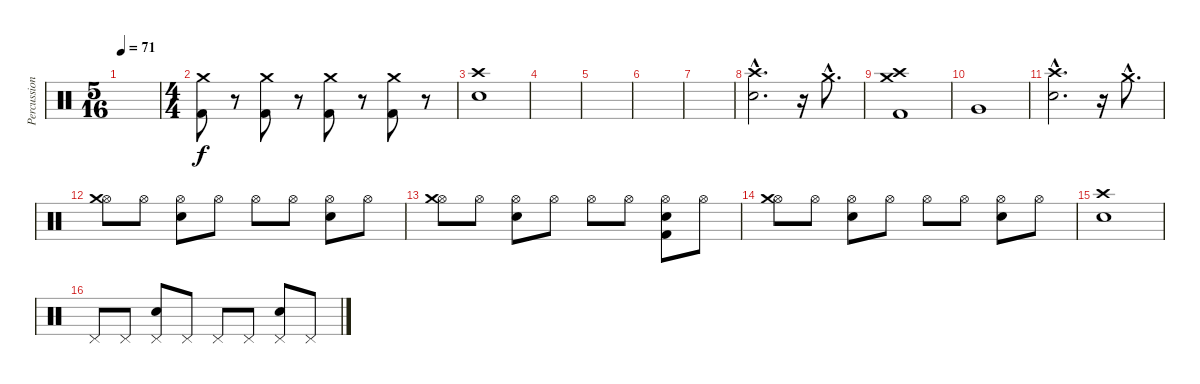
\track ("Percussion" "Percussion") {instrument percussion}
\staff {score}
\articulation defaults
\ts (5 16)
\tempo 71
\clef neutral
\ks c
|
\ts (4 4)
("Kick (hit) 2" "Crash medium (hit)").8 r.8 ("Kick (hit) 2" "Crash medium (hit)").8 r.8 ("Kick (hit) 2" "Crash medium (hit)").8 r.8 ("Kick (hit) 2" "Crash medium (hit)").8 r.8 |
("Crash high (hit)" "Snare (hit) 2").1 |
|
|
|
|
("Crash high (hit)"{hac} "Snare (hit) 2"{hac}).2{d} r.16 "Crash medium (hit)"{hac}.8{d} |
("Crash high (hit)" "Crash medium (hit)" "Kick (hit) 2").1 |
"Very Low Tom (hit)".1 |
("Crash high (hit)"{hac} "Snare (hit) 2"{hac}).2{d} r.16 "Crash medium (hit)"{hac}.8{d} |
("Hi-Hat (open)" "Crash medium (hit)").8 "Hi-Hat (open)".8 ("Hi-Hat (open)" "Electric Snare (hit)").8 "Hi-Hat (open)".8 "Hi-Hat (open)".8 "Hi-Hat (open)".8 ("Hi-Hat (open)" "Electric Snare (hit)").8 "Hi-Hat (open)".8 |
("Hi-Hat (open)" "Crash medium (hit)").8 "Hi-Hat (open)".8 ("Hi-Hat (open)" "Electric Snare (hit)").8 "Hi-Hat (open)".8 "Hi-Hat (open)".8 "Hi-Hat (open)".8 ("Hi-Hat (open)" "Electric Snare (hit)" "Kick (hit) 2").8 "Hi-Hat (open)".8 |
("Hi-Hat (open)" "Crash medium (hit)").8 "Hi-Hat (open)".8 ("Hi-Hat (open)" "Electric Snare (hit)").8 "Hi-Hat (open)".8 "Hi-Hat (open)".8 "Hi-Hat (open)".8 ("Hi-Hat (open)" "Electric Snare (hit)").8 "Hi-Hat (open)".8 |
("Crash high (hit)" "Snare (hit) 2").1 |
"Pedal Hi-Hat (hit)".8 "Pedal Hi-Hat (hit)".8 ("Pedal Hi-Hat (hit)" "Electric Snare (hit)").8 "Pedal Hi-Hat (hit)".8 "Pedal Hi-Hat (hit)".8 "Pedal Hi-Hat (hit)".8 ("Pedal Hi-Hat (hit)" "Electric Snare (hit)").8 "Pedal Hi-Hat (hit)".8
